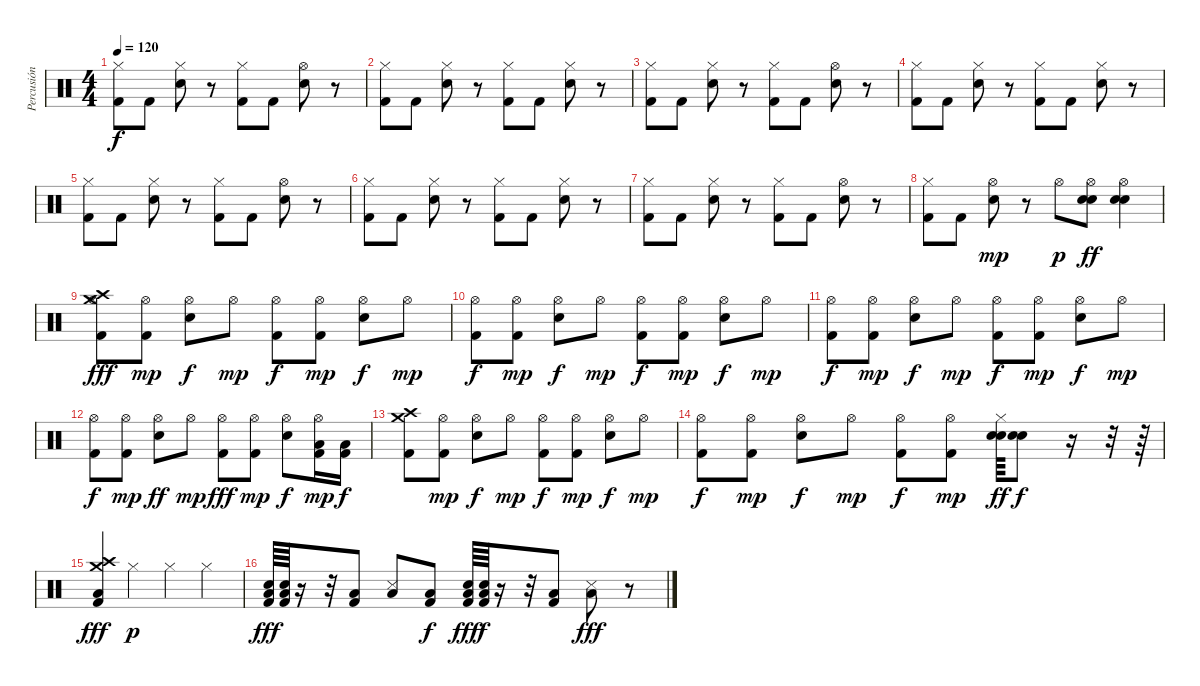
\track ("Percusión" "Percusión") {instrument percussion}
\staff {score}
\articulation defaults
\ts (4 4)
\tempo 120
\clef neutral
\ks c
("Hi-Hat (closed)" "Kick (hit) 2").8{dy f} "Kick (hit) 2".8 ("Electric Snare (hit)" "Hi-Hat (closed)").8 r.8 ("Hi-Hat (closed)" "Kick (hit) 2").8 "Kick (hit) 2".8 ("Electric Snare (hit)" "Hi-Hat (open)").8 r.8 |
("Hi-Hat (closed)" "Kick (hit) 2").8 "Kick (hit) 2".8 ("Electric Snare (hit)" "Hi-Hat (closed)").8 r.8 ("Hi-Hat (closed)" "Kick (hit) 2").8 "Kick (hit) 2".8 ("Electric Snare (hit)" "Hi-Hat (closed)").8 r.8 |
("Hi-Hat (closed)" "Kick (hit) 2").8 "Kick (hit) 2".8 ("Electric Snare (hit)" "Hi-Hat (closed)").8 r.8 ("Hi-Hat (closed)" "Kick (hit) 2").8 "Kick (hit) 2".8 ("Electric Snare (hit)" "Hi-Hat (open)").8 r.8 |
("Hi-Hat (closed)" "Kick (hit) 2").8 "Kick (hit) 2".8 ("Electric Snare (hit)" "Hi-Hat (closed)").8 r.8 ("Hi-Hat (closed)" "Kick (hit) 2").8 "Kick (hit) 2".8 ("Electric Snare (hit)" "Hi-Hat (closed)").8 r.8 |
("Hi-Hat (closed)" "Kick (hit) 2").8 "Kick (hit) 2".8 ("Electric Snare (hit)" "Hi-Hat (closed)").8 r.8 ("Hi-Hat (closed)" "Kick (hit) 2").8 "Kick (hit) 2".8 ("Electric Snare (hit)" "Hi-Hat (open)").8 r.8 |
("Hi-Hat (closed)" "Kick (hit) 2").8 "Kick (hit) 2".8 ("Electric Snare (hit)" "Hi-Hat (closed)").8 r.8 ("Hi-Hat (closed)" "Kick (hit) 2").8 "Kick (hit) 2".8 ("Electric Snare (hit)" "Hi-Hat (closed)").8 r.8 |
("Hi-Hat (closed)" "Kick (hit) 2").8 "Kick (hit) 2".8 ("Electric Snare (hit)" "Hi-Hat (closed)").8 r.8 ("Hi-Hat (closed)" "Kick (hit) 2").8 "Kick (hit) 2".8 ("Electric Snare (hit)" "Hi-Hat (open)").8 r.8 |
("Hi-Hat (closed)" "Kick (hit) 2").8 "Kick (hit) 2".8 ("Electric Snare (hit)" "Hi-Hat (open)").8{dy mp} r.8 "Hi-Hat (open)".8{dy p} ("Electric Snare (hit)" "Snare (hit) 2" "Hi-Hat (open)").8{dy ff} ("Electric Snare (hit)" "Snare (hit) 2" "Hi-Hat (open)").4 |
("Crash high (hit)" "Crash medium (hit)" "Hi-Hat (open)" "Kick (hit) 2").8{dy fff} ("Hi-Hat (open)" "Kick (hit) 2").8{dy mp} ("Electric Snare (hit)" "Hi-Hat (open)").8{dy f} "Hi-Hat (open)".8{dy mp} ("Hi-Hat (open)" "Kick (hit) 2").8{dy f} ("Hi-Hat (open)" "Kick (hit) 2").8{dy mp} ("Electric Snare (hit)" "Hi-Hat (open)").8{dy f} "Hi-Hat (open)".8{dy mp} |
("Hi-Hat (open)" "Kick (hit) 2").8{dy f} ("Hi-Hat (open)" "Kick (hit) 2").8{dy mp} ("Electric Snare (hit)" "Hi-Hat (open)").8{dy f} "Hi-Hat (open)".8{dy mp} ("Hi-Hat (open)" "Kick (hit) 2").8{dy f} ("Hi-Hat (open)" "Kick (hit) 2").8{dy mp} ("Electric Snare (hit)" "Hi-Hat (open)").8{dy f} "Hi-Hat (open)".8{dy mp} |
("Hi-Hat (open)" "Kick (hit) 2").8{dy f} ("Hi-Hat (open)" "Kick (hit) 2").8{dy mp} ("Electric Snare (hit)" "Hi-Hat (open)").8{dy f} "Hi-Hat (open)".8{dy mp} ("Hi-Hat (open)" "Kick (hit) 2").8{dy f} ("Hi-Hat (open)" "Kick (hit) 2").8{dy mp} ("Electric Snare (hit)" "Hi-Hat (open)").8{dy f} "Hi-Hat (open)".8{dy mp} |
("Hi-Hat (open)" "Kick (hit) 2").8{dy f} ("Hi-Hat (open)" "Kick (hit) 2").8{dy mp} ("Electric Snare (hit)" "Hi-Hat (open)").8{dy ff} "Hi-Hat (open)".8{dy mp} ("Hi-Hat (open)" "Kick (hit) 2").8{dy fff} ("Hi-Hat (open)" "Kick (hit) 2").8{dy mp} ("Electric Snare (hit)" "Hi-Hat (open)").8{dy f} ("Hi-Hat (open)" "Low Tom (hit)" "Kick (hit) 2").16{dy mp} ("Low Tom (hit)" "Kick (hit) 2").16{dy f} |
("Crash medium (hit)" "Crash high (hit)" "Kick (hit) 2").8 ("Hi-Hat (open)" "Kick (hit) 2").8{dy mp} ("Electric Snare (hit)" "Hi-Hat (open)").8{dy f} "Hi-Hat (open)".8{dy mp} ("Hi-Hat (open)" "Kick (hit) 2").8{dy f} ("Hi-Hat (open)" "Kick (hit) 2").8{dy mp} ("Electric Snare (hit)" "Hi-Hat (open)").8{dy f} "Hi-Hat (open)".8{dy mp} |
("Hi-Hat (open)" "Kick (hit) 2").8{dy f} ("Hi-Hat (open)" "Kick (hit) 2").8{dy mp} ("Electric Snare (hit)" "Hi-Hat (open)").8{dy f} "Hi-Hat (open)".8{dy mp} ("Hi-Hat (open)" "Kick (hit) 2").8{dy f} ("Hi-Hat (open)" "Kick (hit) 2").8{dy mp} ("Electric Snare (hit)" "Snare (hit) 2" "Hi-Hat (closed)").64{dy ff} ("Electric Snare (hit)" "Snare (hit) 2").8{dy f} r.16 r.32 r.64 |
("Crash high (hit)" "Crash medium (hit)" "Kick (hit) 2" "Low Tom (hit)").4{dy fff} "Hi-Hat (closed)".4{dy p} "Hi-Hat (closed)".4 "Hi-Hat (closed)".4 |
("Electric Snare (hit)" "Low Tom (hit)" "Kick (hit) 2").64{dy fff} ("Electric Snare (hit)" "Low Tom (hit)" "Kick (hit) 2").64 r.16 r.32 ("Low Tom (hit)" "Kick (hit) 2").8 ("Snare (side stick) 3" "Low Tom (hit)").8 ("Low Tom (hit)" "Kick (hit) 2").8{dy f} ("Electric Snare (hit)" "Low Tom (hit)" "Kick (hit) 2").64{dy fff} ("Electric Snare (hit)" "Low Tom (hit)" "Kick (hit) 2").64{dy f} r.16 r.32 ("Low Tom (hit)" "Kick (hit) 2").8 ("Snare (side stick) 3" "Low Tom (hit)").8{dy fff} r.8
